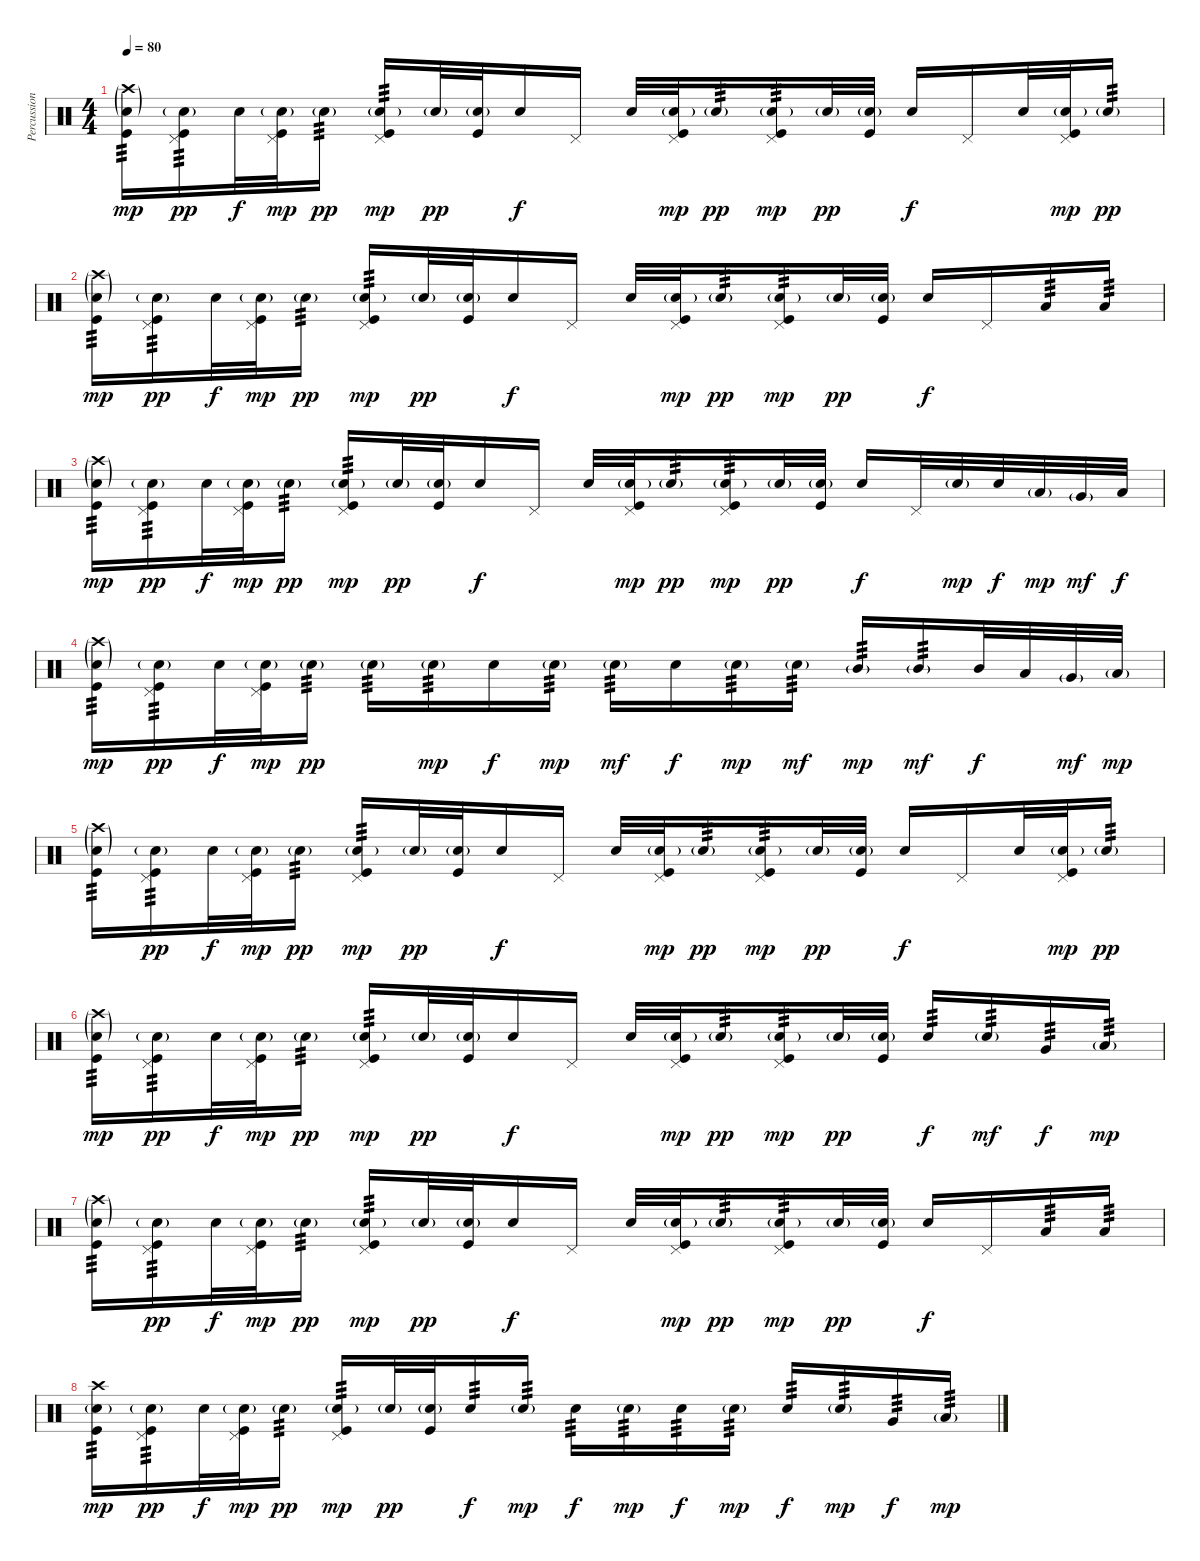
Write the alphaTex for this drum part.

\track ("Percussion" "Percussion") {instrument percussion}
\staff {score}
\articulation defaults
\ts (4 4)
\tempo 80
\clef neutral
\ks c
("Crash high (hit)"{g} "Snare (hit) 2"{g} "Kick (hit)").16{tp 3 dy mp} ("Pedal Hi-Hat (hit)" "Snare (hit) 2"{g} "Kick (hit)").16{tp 3 dy pp} "Snare (hit) 2".32{dy f} ("Pedal Hi-Hat (hit)" "Snare (hit) 2"{g} "Kick (hit)").32{dy mp} "Snare (hit) 2"{g}.16{tp 3 dy pp} ("Pedal Hi-Hat (hit)" "Snare (hit) 2"{g} "Kick (hit)").16{tp 3 dy mp} "Snare (hit) 2"{g}.32{dy pp} ("Snare (hit) 2"{g} "Kick (hit)").32 "Snare (hit) 2".16{dy f} "Pedal Hi-Hat (hit)".16 "Snare (hit) 2".32 ("Pedal Hi-Hat (hit)" "Snare (hit) 2"{g} "Kick (hit)").32{dy mp} "Snare (hit) 2"{g}.16{tp 3 dy pp} ("Pedal Hi-Hat (hit)" "Snare (hit) 2"{g} "Kick (hit)").16{tp 3 dy mp} "Snare (hit) 2"{g}.32{dy pp} ("Snare (hit) 2"{g} "Kick (hit)").32 "Snare (hit) 2".16{dy f} "Pedal Hi-Hat (hit)".16 "Snare (hit) 2".32 ("Pedal Hi-Hat (hit)" "Snare (hit) 2"{g} "Kick (hit)").32{dy mp} "Snare (hit) 2"{g}.16{tp 3 dy pp} |
("Crash high (hit)"{g} "Snare (hit) 2"{g} "Kick (hit)").16{tp 3 dy mp} ("Pedal Hi-Hat (hit)" "Snare (hit) 2"{g} "Kick (hit)").16{tp 3 dy pp} "Snare (hit) 2".32{dy f} ("Pedal Hi-Hat (hit)" "Snare (hit) 2"{g} "Kick (hit)").32{dy mp} "Snare (hit) 2"{g}.16{tp 3 dy pp} ("Pedal Hi-Hat (hit)" "Snare (hit) 2"{g} "Kick (hit)").16{tp 3 dy mp} "Snare (hit) 2"{g}.32{dy pp} ("Snare (hit) 2"{g} "Kick (hit)").32 "Snare (hit) 2".16{dy f} "Pedal Hi-Hat (hit)".16 "Snare (hit) 2".32 ("Pedal Hi-Hat (hit)" "Snare (hit) 2"{g} "Kick (hit)").32{dy mp} "Snare (hit) 2"{g}.16{tp 3 dy pp} ("Pedal Hi-Hat (hit)" "Snare (hit) 2"{g} "Kick (hit)").16{tp 3 dy mp} "Snare (hit) 2"{g}.32{dy pp} ("Snare (hit) 2"{g} "Kick (hit)").32 "Snare (hit) 2".16{dy f} "Pedal Hi-Hat (hit)".16 "Low Floor Tom (hit)".16{tp 3} "Low Floor Tom (hit)".16{tp 3} |
("Crash high (hit)"{g} "Snare (hit) 2"{g} "Kick (hit)").16{tp 3 dy mp} ("Pedal Hi-Hat (hit)" "Snare (hit) 2"{g} "Kick (hit)").16{tp 3 dy pp} "Snare (hit) 2".32{dy f} ("Pedal Hi-Hat (hit)" "Snare (hit) 2"{g} "Kick (hit)").32{dy mp} "Snare (hit) 2"{g}.16{tp 3 dy pp} ("Pedal Hi-Hat (hit)" "Snare (hit) 2"{g} "Kick (hit)").16{tp 3 dy mp} "Snare (hit) 2"{g}.32{dy pp} ("Snare (hit) 2"{g} "Kick (hit)").32 "Snare (hit) 2".16{dy f} "Pedal Hi-Hat (hit)".16 "Snare (hit) 2".32 ("Pedal Hi-Hat (hit)" "Snare (hit) 2"{g} "Kick (hit)").32{dy mp} "Snare (hit) 2"{g}.16{tp 3 dy pp} ("Pedal Hi-Hat (hit)" "Snare (hit) 2"{g} "Kick (hit)").16{tp 3 dy mp} "Snare (hit) 2"{g}.32{dy pp} ("Snare (hit) 2"{g} "Kick (hit)").32 "Snare (hit) 2".16{dy f} "Pedal Hi-Hat (hit)".32 "Snare (hit) 2"{g}.32{dy mp} "Snare (hit) 2".32{dy f} "Low Tom (hit)"{g}.32{dy mp} "Very Low Tom (hit)"{g}.32{dy mf} "Low Floor Tom (hit)".32{dy f} |
("Crash high (hit)"{g} "Snare (hit) 2"{g} "Kick (hit)").16{tp 3 dy mp} ("Pedal Hi-Hat (hit)" "Snare (hit) 2"{g} "Kick (hit)").16{tp 3 dy pp} "Snare (hit) 2".32{dy f} ("Pedal Hi-Hat (hit)" "Snare (hit) 2"{g} "Kick (hit)").32{dy mp} "Snare (hit) 2"{g}.16{tp 3 dy pp} "Snare (hit) 2"{g}.16{tp 3} "Snare (hit) 2"{g}.16{tp 3 dy mp} "Snare (hit) 2".16{dy f} "Snare (hit) 2"{g}.16{tp 3 dy mp} "Snare (hit) 2"{g}.16{tp 3 dy mf} "Snare (hit) 2".16{dy f} "Snare (hit) 2"{g}.16{tp 3 dy mp} "Snare (hit) 2"{g}.16{tp 3 dy mf} "Mid Tom (hit)"{g}.16{tp 3 dy mp} "Mid Tom (hit)"{g}.16{tp 3 dy mf} "Mid Tom (hit)".32{dy f} "Low Tom (hit)".32 "Very Low Tom (hit)"{g}.32{dy mf} "Low Floor Tom (hit)"{g}.32{dy mp} |
("Crash high (hit)"{g} "Snare (hit) 2"{g} "Kick (hit)").16{tp 3} ("Pedal Hi-Hat (hit)" "Snare (hit) 2"{g} "Kick (hit)").16{tp 3 dy pp} "Snare (hit) 2".32{dy f} ("Pedal Hi-Hat (hit)" "Snare (hit) 2"{g} "Kick (hit)").32{dy mp} "Snare (hit) 2"{g}.16{tp 3 dy pp} ("Pedal Hi-Hat (hit)" "Snare (hit) 2"{g} "Kick (hit)").16{tp 3 dy mp} "Snare (hit) 2"{g}.32{dy pp} ("Snare (hit) 2"{g} "Kick (hit)").32 "Snare (hit) 2".16{dy f} "Pedal Hi-Hat (hit)".16 "Snare (hit) 2".32 ("Pedal Hi-Hat (hit)" "Snare (hit) 2"{g} "Kick (hit)").32{dy mp} "Snare (hit) 2"{g}.16{tp 3 dy pp} ("Pedal Hi-Hat (hit)" "Snare (hit) 2"{g} "Kick (hit)").16{tp 3 dy mp} "Snare (hit) 2"{g}.32{dy pp} ("Snare (hit) 2"{g} "Kick (hit)").32 "Snare (hit) 2".16{dy f} "Pedal Hi-Hat (hit)".16 "Snare (hit) 2".32 ("Pedal Hi-Hat (hit)" "Snare (hit) 2"{g} "Kick (hit)").32{dy mp} "Snare (hit) 2"{g}.16{tp 3 dy pp} |
("Crash high (hit)"{g} "Snare (hit) 2"{g} "Kick (hit)").16{tp 3 dy mp} ("Pedal Hi-Hat (hit)" "Snare (hit) 2"{g} "Kick (hit)").16{tp 3 dy pp} "Snare (hit) 2".32{dy f} ("Pedal Hi-Hat (hit)" "Snare (hit) 2"{g} "Kick (hit)").32{dy mp} "Snare (hit) 2"{g}.16{tp 3 dy pp} ("Pedal Hi-Hat (hit)" "Snare (hit) 2"{g} "Kick (hit)").16{tp 3 dy mp} "Snare (hit) 2"{g}.32{dy pp} ("Snare (hit) 2"{g} "Kick (hit)").32 "Snare (hit) 2".16{dy f} "Pedal Hi-Hat (hit)".16 "Snare (hit) 2".32 ("Pedal Hi-Hat (hit)" "Snare (hit) 2"{g} "Kick (hit)").32{dy mp} "Snare (hit) 2"{g}.16{tp 3 dy pp} ("Pedal Hi-Hat (hit)" "Snare (hit) 2"{g} "Kick (hit)").16{tp 3 dy mp} "Snare (hit) 2"{g}.32{dy pp} ("Snare (hit) 2"{g} "Kick (hit)").32 "Snare (hit) 2".16{tp 3 dy f} "Snare (hit) 2"{g}.16{tp 3 dy mf} "Very Low Tom (hit)".16{tp 3 dy f} "Low Floor Tom (hit)"{g}.16{tp 3 dy mp} |
("Crash high (hit)"{g} "Snare (hit) 2"{g} "Kick (hit)").16{tp 3} ("Pedal Hi-Hat (hit)" "Snare (hit) 2"{g} "Kick (hit)").16{tp 3 dy pp} "Snare (hit) 2".32{dy f} ("Pedal Hi-Hat (hit)" "Snare (hit) 2"{g} "Kick (hit)").32{dy mp} "Snare (hit) 2"{g}.16{tp 3 dy pp} ("Pedal Hi-Hat (hit)" "Snare (hit) 2"{g} "Kick (hit)").16{tp 3 dy mp} "Snare (hit) 2"{g}.32{dy pp} ("Snare (hit) 2"{g} "Kick (hit)").32 "Snare (hit) 2".16{dy f} "Pedal Hi-Hat (hit)".16 "Snare (hit) 2".32 ("Pedal Hi-Hat (hit)" "Snare (hit) 2"{g} "Kick (hit)").32{dy mp} "Snare (hit) 2"{g}.16{tp 3 dy pp} ("Pedal Hi-Hat (hit)" "Snare (hit) 2"{g} "Kick (hit)").16{tp 3 dy mp} "Snare (hit) 2"{g}.32{dy pp} ("Snare (hit) 2"{g} "Kick (hit)").32 "Snare (hit) 2".16{dy f} "Pedal Hi-Hat (hit)".16 "Low Floor Tom (hit)".16{tp 3} "Low Floor Tom (hit)".16{tp 3} |
("Crash high (hit)" "Snare (hit) 2"{g} "Kick (hit)").16{tp 3 dy mp} ("Pedal Hi-Hat (hit)" "Snare (hit) 2"{g} "Kick (hit)").16{tp 3 dy pp} "Snare (hit) 2".32{dy f} ("Pedal Hi-Hat (hit)" "Snare (hit) 2"{g} "Kick (hit)").32{dy mp} "Snare (hit) 2"{g}.16{tp 3 dy pp} ("Pedal Hi-Hat (hit)" "Snare (hit) 2"{g} "Kick (hit)").16{tp 3 dy mp} "Snare (hit) 2"{g}.32{dy pp} ("Snare (hit) 2"{g} "Kick (hit)").32 "Snare (hit) 2".16{tp 3 dy f} "Snare (hit) 2"{g}.16{tp 3 dy mp} "Snare (hit) 2".16{tp 3 dy f} "Snare (hit) 2"{g}.16{tp 3 dy mp} "Snare (hit) 2".16{tp 3 dy f} "Snare (hit) 2"{g}.16{tp 3 dy mp} "Snare (hit) 2".16{tp 3 dy f} "Snare (hit) 2"{g}.16{tp 3 dy mp} "Very Low Tom (hit)".16{tp 3 dy f} "Low Floor Tom (hit)"{g}.16{tp 3 dy mp}
